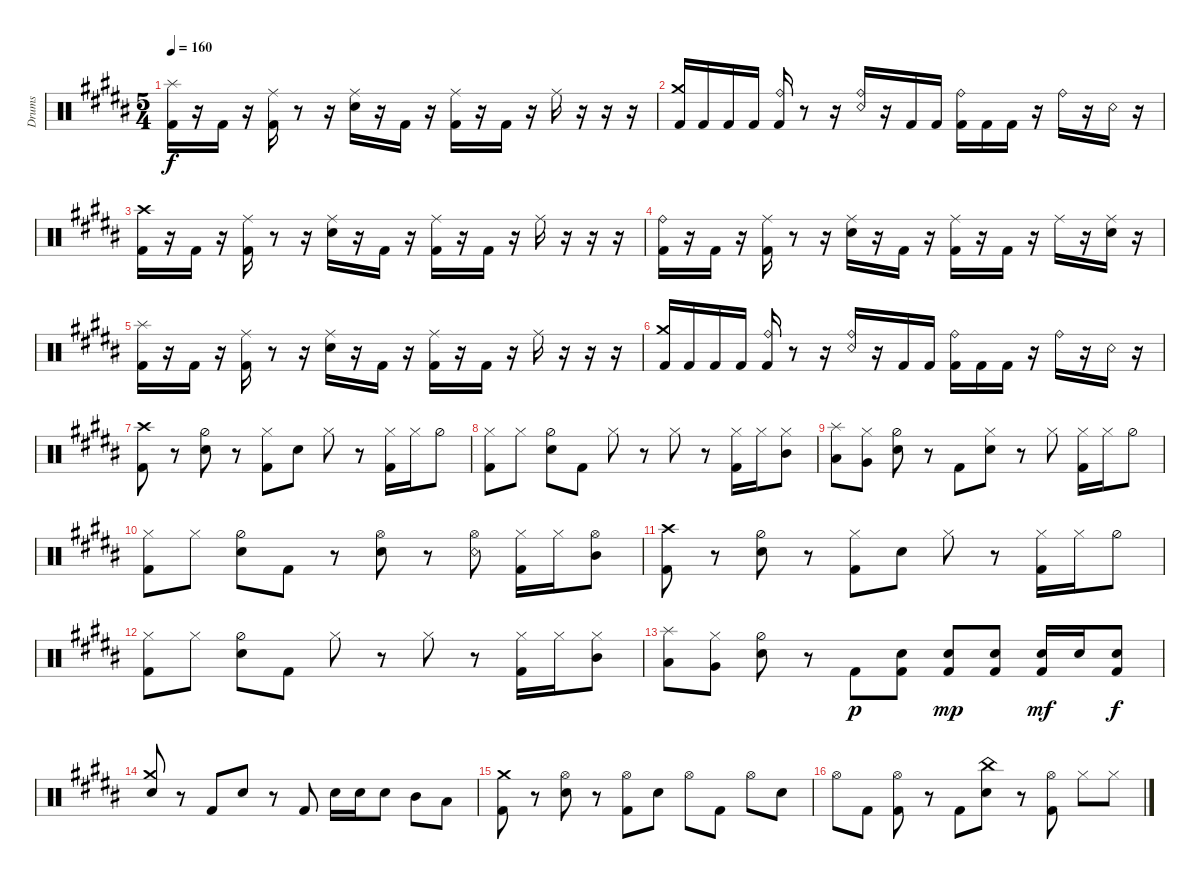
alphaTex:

\bracketExtendMode groupsimilarinstruments
\otherSystemsTrackNameOrientation horizontal
\track ("Drumkit" "Drums") {instrument percussion}
\staff {score}
\articulation defaults
\ts (5 4)
\tempo 160
\clef neutral
\ks b
("Kick (hit) 2"{acc bb} "Splash (hit)"{acc bb}).16{dy f beam Down} r.16{beam Down} "Kick (hit) 2"{acc bb}.16{beam Down} r.16{beam Down} ("Kick (hit) 2"{acc bb} "Ride (middle)"{acc bb}).16{beam Down} r.8{beam Down} r.16{beam Down} ("Ride (middle)"{acc bb} "Snare (hit) 2"{acc bb}).16{beam Down} r.16{beam Down} "Kick (hit) 2"{acc bb}.16{beam Down} r.16{beam Down} ("Kick (hit) 2"{acc bb} "Ride (middle)"{acc bb}).16{beam Down} r.16{beam Down} "Kick (hit) 2"{acc bb}.16{beam Down} r.16{beam Down} "Ride (middle)"{acc bb}.16{beam Down} r.16{beam Down} r.16{beam Down} r.16{beam Down} |
("Kick (hit) 2"{acc bb} "Crash medium (hit)"{acc bb}).16{beam Up} "Kick (hit) 2"{acc bb}.16{beam Up} "Kick (hit) 2"{acc bb}.16{beam Up} "Kick (hit) 2"{acc bb}.16{beam Up} ("Kick (hit) 2"{acc bb} "Ride (bell)"{acc bb}).16{beam Up} r.8{beam Up} r.16{beam Up} ("Ride (bell)"{acc bb} "Snare (rim shot)"{acc bb}).16{beam Up} r.16{beam Up} "Kick (hit) 2"{acc bb}.16{beam Up} "Kick (hit) 2"{acc bb}.16{beam Up} ("Kick (hit) 2"{acc bb} "Ride (bell)"{acc bb}).16{beam Down} "Kick (hit) 2"{acc bb}.16{beam Down} "Kick (hit) 2"{acc bb}.16{beam Down} r.16{beam Down} "Ride (bell)"{acc bb}.16{beam Down} r.16{beam Down} "Snare (rim shot)"{acc bb}.16{beam Down} r.16{beam Down} |
("Kick (hit) 2"{acc bb} "Crash high (hit)"{acc bb}).16{beam Down} r.16{beam Down} "Kick (hit) 2"{acc bb}.16{beam Down} r.16{beam Down} ("Kick (hit) 2"{acc bb} "Ride (middle)"{acc bb}).16{beam Down} r.8{beam Down} r.16{beam Down} ("Ride (middle)"{acc bb} "Snare (hit) 2"{acc bb}).16{beam Down} r.16{beam Down} "Kick (hit) 2"{acc bb}.16{beam Down} r.16{beam Down} ("Kick (hit) 2"{acc bb} "Ride (middle)"{acc bb}).16{beam Down} r.16{beam Down} "Kick (hit) 2"{acc bb}.16{beam Down} r.16{beam Down} "Ride (middle)"{acc bb}.16{beam Down} r.16{beam Down} r.16{beam Down} r.16{beam Down} |
("Kick (hit) 2"{acc bb} "Ride (bell)"{acc bb}).16{beam Down} r.16{beam Down} "Kick (hit) 2"{acc bb}.16{beam Down} r.16{beam Down} ("Kick (hit) 2"{acc bb} "Ride (middle)"{acc bb}).16{beam Down} r.8{beam Down} r.16{beam Down} ("Ride (middle)"{acc bb} "Snare (hit) 2"{acc bb}).16{beam Down} r.16{beam Down} "Kick (hit) 2"{acc bb}.16{beam Down} r.16{beam Down} ("Kick (hit) 2"{acc bb} "Ride (middle)"{acc bb}).16{beam Down} r.16{beam Down} "Kick (hit) 2"{acc bb}.16{beam Down} r.16{beam Down} "Ride (middle)"{acc bb}.16{beam Down} r.16{beam Down} ("Snare (hit) 2"{acc bb} "Ride (middle)"{acc bb}).16{beam Down} r.16{beam Down} |
("Kick (hit) 2"{acc bb} "Splash (hit)"{acc bb}).16{beam Down} r.16{beam Down} "Kick (hit) 2"{acc bb}.16{beam Down} r.16{beam Down} ("Kick (hit) 2"{acc bb} "Ride (middle)"{acc bb}).16{beam Down} r.8{beam Down} r.16{beam Down} ("Ride (middle)"{acc bb} "Snare (hit) 2"{acc bb}).16{beam Down} r.16{beam Down} "Kick (hit) 2"{acc bb}.16{beam Down} r.16{beam Down} ("Kick (hit) 2"{acc bb} "Ride (middle)"{acc bb}).16{beam Down} r.16{beam Down} "Kick (hit) 2"{acc bb}.16{beam Down} r.16{beam Down} "Ride (middle)"{acc bb}.16{beam Down} r.16{beam Down} r.16{beam Down} r.16{beam Down} |
("Kick (hit) 2"{acc bb} "Crash medium (hit)"{acc bb}).16{beam Up} "Kick (hit) 2"{acc bb}.16{beam Up} "Kick (hit) 2"{acc bb}.16{beam Up} "Kick (hit) 2"{acc bb}.16{beam Up} ("Kick (hit) 2"{acc bb} "Ride (bell)"{acc bb}).16{beam Up} r.8{beam Up} r.16{beam Up} ("Ride (bell)"{acc bb} "Snare (rim shot)"{acc bb}).16{beam Up} r.16{beam Up} "Kick (hit) 2"{acc bb}.16{beam Up} "Kick (hit) 2"{acc bb}.16{beam Up} ("Kick (hit) 2"{acc bb} "Ride (bell)"{acc bb}).16{beam Down} "Kick (hit) 2"{acc bb}.16{beam Down} "Kick (hit) 2"{acc bb}.16{beam Down} r.16{beam Down} "Ride (bell)"{acc bb}.16{beam Down} r.16{beam Down} "Snare (rim shot)"{acc bb}.16{beam Down} r.16{beam Down} |
("Kick (hit) 2"{acc bb} "Crash high (hit)"{acc bb}).8{beam Down} r.8{beam Down} ("Snare (hit) 2"{acc bb} "Hi-Hat (half)"{acc bb}).8{beam Down} r.8{beam Down} ("Kick (hit) 2"{acc bb} "Hi-Hat (closed)"{acc bb}).8{beam Down} "Snare (hit) 2"{acc bb}.8{beam Down} "Hi-Hat (closed)"{acc bb}.8{beam Down} r.8{beam Down} ("Hi-Hat (closed)"{acc bb} "Kick (hit) 2"{acc bb}).16{beam Down} "Hi-Hat (closed)"{acc bb}.16{beam Down} "Hi-Hat (half)"{acc bb}.8{beam Down} |
("Kick (hit) 2"{acc bb} "Hi-Hat (closed)"{acc bb}).8{beam Down} "Hi-Hat (closed)"{acc bb}.8{beam Down} ("Snare (hit) 2"{acc bb} "Hi-Hat (half)"{acc bb}).8{beam Down} "Kick (hit) 2"{acc bb}.8{beam Down} "Hi-Hat (closed)"{acc bb}.8{beam Down} r.8{beam Down} "Hi-Hat (closed)"{acc bb}.8{beam Down} r.8{beam Down} ("Hi-Hat (closed)"{acc bb} "Kick (hit) 2"{acc bb}).16{beam Down} "Hi-Hat (closed)"{acc bb}.16{beam Down} ("Hi-Hat (closed)"{acc bb} "Mid Tom (hit)"{acc bb}).8{beam Down} |
("Low Tom (hit)"{acc bb} "Splash (hit)"{acc bb}).8{beam Down} ("Hi-Hat (closed)"{acc bb} "Very Low Tom (hit)"{acc bb}).8{beam Down} ("Snare (hit) 2"{acc bb} "Hi-Hat (half)"{acc bb}).8{beam Down} r.8{beam Down} "Kick (hit) 2"{acc bb}.8{beam Down} ("Snare (hit) 2"{acc bb} "Hi-Hat (closed)"{acc bb}).8{beam Down} r.8{beam Down} "Hi-Hat (closed)"{acc bb}.8{beam Down} ("Hi-Hat (closed)"{acc bb} "Kick (hit) 2"{acc bb}).16{beam Down} "Hi-Hat (closed)"{acc bb}.16{beam Down} "Hi-Hat (half)"{acc bb}.8{beam Down} |
("Kick (hit) 2"{acc bb} "Hi-Hat (closed)"{acc bb}).8{beam Down} "Hi-Hat (closed)"{acc bb}.8{beam Down} ("Snare (hit) 2"{acc bb} "Hi-Hat (half)"{acc bb}).8{beam Down} "Kick (hit) 2"{acc bb}.8{beam Down} r.8{beam Down} ("Snare (hit) 2"{acc bb} "Hi-Hat (open)"{acc bb}).8{beam Down} r.8{beam Down} ("Hi-Hat (open)"{acc bb} "Snare (rim shot)"{acc bb}).8{beam Down} ("Hi-Hat (closed)"{acc bb} "Kick (hit) 2"{acc bb}).16{beam Down} "Hi-Hat (closed)"{acc bb}.16{beam Down} ("Hi-Hat (open)"{acc bb} "Mid Tom (hit)"{acc bb}).8{beam Down} |
("Kick (hit) 2"{acc bb} "Crash high (hit)"{acc bb}).8{beam Down} r.8{beam Down} ("Snare (hit) 2"{acc bb} "Hi-Hat (half)"{acc bb}).8{beam Down} r.8{beam Down} ("Kick (hit) 2"{acc bb} "Hi-Hat (closed)"{acc bb}).8{beam Down} "Snare (hit) 2"{acc bb}.8{beam Down} "Hi-Hat (closed)"{acc bb}.8{beam Down} r.8{beam Down} ("Hi-Hat (closed)"{acc bb} "Kick (hit) 2"{acc bb}).16{beam Down} "Hi-Hat (closed)"{acc bb}.16{beam Down} "Hi-Hat (half)"{acc bb}.8{beam Down} |
("Kick (hit) 2"{acc bb} "Hi-Hat (closed)"{acc bb}).8{beam Down} "Hi-Hat (closed)"{acc bb}.8{beam Down} ("Snare (hit) 2"{acc bb} "Hi-Hat (half)"{acc bb}).8{beam Down} "Kick (hit) 2"{acc bb}.8{beam Down} "Hi-Hat (closed)"{acc bb}.8{beam Down} r.8{beam Down} "Hi-Hat (closed)"{acc bb}.8{beam Down} r.8{beam Down} ("Hi-Hat (closed)"{acc bb} "Kick (hit) 2"{acc bb}).16{beam Down} "Hi-Hat (closed)"{acc bb}.16{beam Down} ("Hi-Hat (closed)"{acc bb} "Mid Tom (hit)"{acc bb}).8{beam Down} |
("Low Tom (hit)"{acc bb} "Splash (hit)"{acc bb}).8{beam Down} ("Hi-Hat (closed)"{acc bb} "Very Low Tom (hit)"{acc bb}).8{beam Down} ("Snare (hit) 2"{acc bb} "Hi-Hat (half)"{acc bb}).8{beam Down} r.8{beam Down} "Kick (hit) 2"{acc bb}.8{dy p beam Down} ("Snare (hit) 2"{acc bb} "Kick (hit) 2"{acc bb}).8{beam Down} ("Kick (hit) 2"{acc bb} "Snare (hit) 2"{acc bb}).8{dy mp beam Up} ("Kick (hit) 2"{acc bb} "Snare (hit) 2"{acc bb}).8{beam Up} ("Kick (hit) 2"{acc bb} "Snare (hit) 2"{acc bb}).16{dy mf beam Up} "Snare (hit) 2"{acc bb}.16{beam Up} ("Kick (hit) 2"{acc bb} "Snare (hit) 2"{acc bb}).8{dy f beam Up} |
("Crash medium (hit)"{acc bb} "Snare (hit) 2"{acc bb}).8{beam Up} r.8{beam Up} "Kick (hit) 2"{acc bb}.8{beam Up} "Snare (hit) 2"{acc bb}.8{beam Up} r.8{beam Up} "Kick (hit) 2"{acc bb}.8{beam Up} "Snare (hit) 2"{acc bb}.16{beam Down} "Snare (hit) 2"{acc bb}.16{beam Down} "Snare (hit) 2"{acc bb}.8{beam Down} "Mid Tom (hit)"{acc bb}.8{beam Down} "Low Tom (hit)"{acc bb}.8{beam Down} |
("Kick (hit) 2"{acc bb} "Crash medium (hit)"{acc bb}).8{beam Down} r.8{beam Down} ("Snare (hit) 2"{acc bb} "Hi-Hat (open)"{acc bb}).8{beam Down} r.8{beam Down} ("Kick (hit) 2"{acc bb} "Hi-Hat (open)"{acc bb}).8{beam Down} "Snare (hit) 2"{acc bb}.8{beam Down} "Hi-Hat (open)"{acc bb}.8{beam Down} "Kick (hit) 2"{acc bb}.8{beam Down} "Hi-Hat (open)"{acc bb}.8{beam Down} "Snare (hit) 2"{acc bb}.8{beam Down} |
"Hi-Hat (open)"{acc bb}.8{beam Down} "Kick (hit) 2"{acc bb}.8{beam Down} ("Kick (hit) 2"{acc bb} "Hi-Hat (open)"{acc bb}).8{beam Down} r.8{beam Down} "Kick (hit) 2"{acc bb}.8{beam Down} ("China (hit)"{acc bb} "Snare (hit) 2"{acc bb}).8{beam Down} r.8{beam Down} ("Hi-Hat (open)"{acc bb} "Kick (hit) 2"{acc bb}).8{beam Down} "Hi-Hat (closed)"{acc bb}.8{beam Down} "Hi-Hat (closed)"{acc bb}.8{beam Down}
